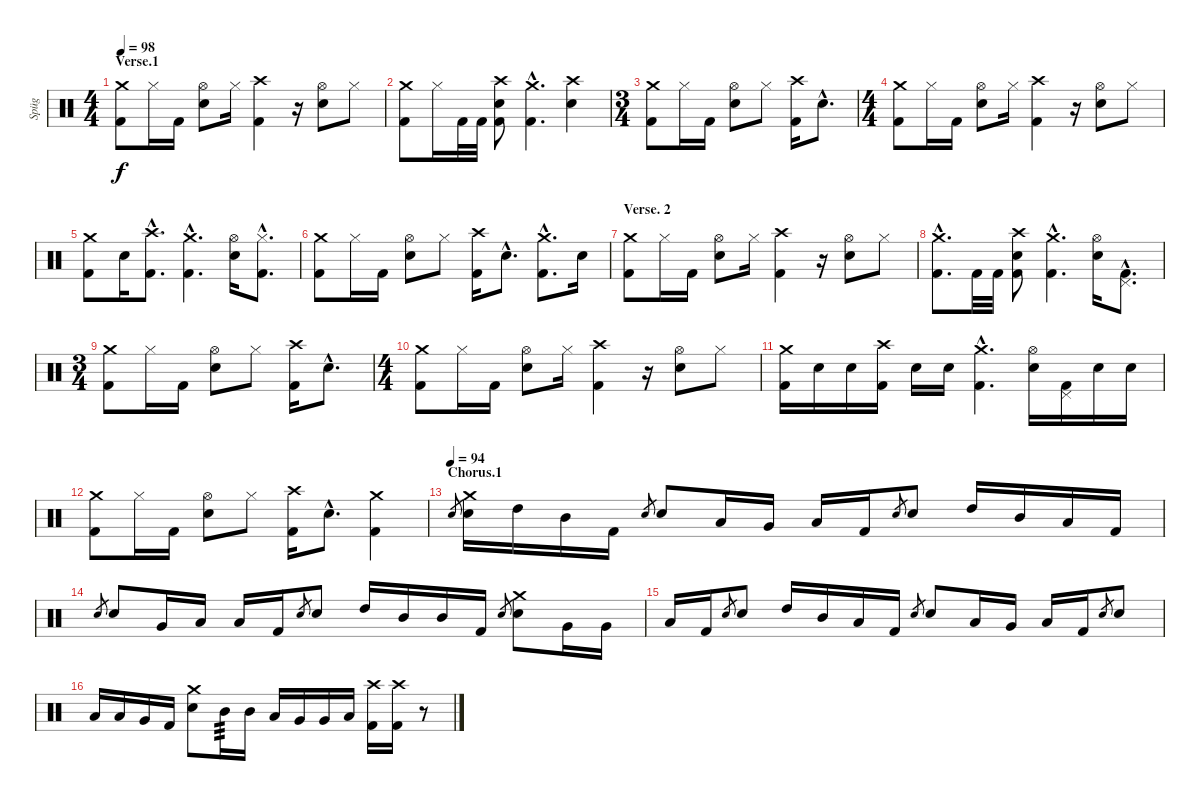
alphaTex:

\track ("Spüg" "Spüg") {instrument percussion}
\staff {score}
\articulation defaults
\ts (4 4)
\section ("" "Verse.1")
\tempo 98
\clef neutral
\ks c
("Crash medium (hit)" "Kick (hit) 2").8{dy f} "Hi-Hat (closed)".16 "Kick (hit) 2".16 ("Hi-Hat (open)" "Electric Snare (hit)").8 "Hi-Hat (closed)".16 ("Crash high (hit)" "Kick (hit) 2").4 r.16 ("Hi-Hat (open)" "Electric Snare (hit)").8 "Hi-Hat (closed)".8 |
("Crash medium (hit)" "Kick (hit) 2").8 "Hi-Hat (closed)".16 "Kick (hit) 2".32 "Kick (hit) 2".32 ("Crash high (hit)" "Electric Snare (hit)" "Kick (hit) 2").8 ("Crash medium (hit)"{hac} "Kick (hit) 2"{hac}).4{d} ("Crash high (hit)" "Electric Snare (hit)").4 |
\ts (3 4)
("Crash medium (hit)" "Kick (hit) 2").8 "Hi-Hat (closed)".16 "Kick (hit) 2".16 ("Hi-Hat (open)" "Electric Snare (hit)").8 "Hi-Hat (closed)".8 ("Crash high (hit)" "Kick (hit) 2").16 "Electric Snare (hit)"{hac}.8{d} |
\ts (4 4)
("Crash medium (hit)" "Kick (hit) 2").8 "Hi-Hat (closed)".16 "Kick (hit) 2".16 ("Hi-Hat (open)" "Electric Snare (hit)").8 "Hi-Hat (closed)".16 ("Crash high (hit)" "Kick (hit) 2").4 r.16 ("Hi-Hat (open)" "Electric Snare (hit)").8 "Hi-Hat (closed)".8 |
("Crash medium (hit)" "Kick (hit) 2").8 "Electric Snare (hit)".16 ("Crash high (hit)"{hac} "Kick (hit) 2"{hac}).8{d} ("Crash medium (hit)"{hac} "Kick (hit) 2"{hac}).4{d} ("Hi-Hat (open)" "Electric Snare (hit)").16 ("Hi-Hat (closed)"{hac} "Kick (hit) 2"{hac}).8{d} |
("Crash medium (hit)" "Kick (hit) 2").8 "Hi-Hat (closed)".16 "Kick (hit) 2".16 ("Hi-Hat (open)" "Electric Snare (hit)").8 "Hi-Hat (closed)".8 ("Crash high (hit)" "Kick (hit) 2").16 "Electric Snare (hit)"{hac}.8{d} ("Crash medium (hit)"{hac} "Kick (hit) 2"{hac}).8{d} "Electric Snare (hit)".16 |
\section ("" "Verse. 2")
("Crash medium (hit)" "Kick (hit) 2").8 "Hi-Hat (closed)".16 "Kick (hit) 2".16 ("Hi-Hat (open)" "Electric Snare (hit)").8 "Hi-Hat (closed)".16 ("Crash high (hit)" "Kick (hit) 2").4 r.16 ("Hi-Hat (open)" "Electric Snare (hit)").8 "Hi-Hat (closed)".8 |
("Crash medium (hit)"{hac} "Kick (hit) 2"{hac}).8{d} "Kick (hit) 2".32 "Kick (hit) 2".32 ("Crash high (hit)" "Electric Snare (hit)" "Kick (hit) 2").8 ("Crash medium (hit)"{hac} "Kick (hit) 2"{hac}).4{d} ("Hi-Hat (open)" "Electric Snare (hit)").16 ("Pedal Hi-Hat (hit)"{hac} "Kick (hit) 2"{hac}).8{d} |
\ts (3 4)
("Crash medium (hit)" "Kick (hit) 2").8 "Hi-Hat (closed)".16 "Kick (hit) 2".16 ("Hi-Hat (open)" "Electric Snare (hit)").8 "Hi-Hat (closed)".8 ("Crash high (hit)" "Kick (hit) 2").16 "Electric Snare (hit)"{hac}.8{d} |
\ts (4 4)
("Crash medium (hit)" "Kick (hit) 2").8 "Hi-Hat (closed)".16 "Kick (hit) 2".16 ("Hi-Hat (open)" "Electric Snare (hit)").8 "Hi-Hat (closed)".16 ("Crash high (hit)" "Kick (hit) 2").4 r.16 ("Hi-Hat (open)" "Electric Snare (hit)").8 "Hi-Hat (closed)".8 |
("Crash medium (hit)" "Kick (hit) 2").16 "Electric Snare (hit)".16 "Electric Snare (hit)".16 ("Crash high (hit)" "Kick (hit) 2").16 "Electric Snare (hit)".16 "Electric Snare (hit)".16 ("Crash medium (hit)"{hac} "Kick (hit) 2"{hac}).4{d} ("Hi-Hat (open)" "Electric Snare (hit)").16 ("Pedal Hi-Hat (hit)" "Kick (hit) 2").16 "Electric Snare (hit)".16 "Electric Snare (hit)".16 |
("Crash medium (hit)" "Kick (hit) 2").8 "Hi-Hat (closed)".16 "Kick (hit) 2".16 ("Hi-Hat (open)" "Electric Snare (hit)").8 "Hi-Hat (closed)".8 ("Crash high (hit)" "Kick (hit) 2").16 "Electric Snare (hit)"{hac}.8{d} ("Crash medium (hit)" "Kick (hit) 2").4 |
\section ("" "Chorus.1")
\tempo (94)
"Electric Snare (hit)".8{gr} ("Crash medium (hit)" "Electric Snare (hit)").16 "High Tom (hit)".16 "Mid Tom (hit)".16 "Kick (hit) 2".16 "Electric Snare (hit)".8{gr} "Electric Snare (hit)".8 "Low Tom (hit)".16 "Very Low Tom (hit)".16 "Low Floor Tom (hit)".16 "Kick (hit) 2".16 "Electric Snare (hit)".8{gr} "Electric Snare (hit)".8 "High Tom (hit)".16 "Mid Tom (hit)".16 "Low Tom (hit)".16 "Kick (hit) 2".16 |
"Electric Snare (hit)".8{gr} "Electric Snare (hit)".8 "Very Low Tom (hit)".16 "Low Floor Tom (hit)".16 "Low Floor Tom (hit)".16 "Kick (hit) 2".16 "Electric Snare (hit)".8{gr} "Electric Snare (hit)".8 "High Tom (hit)".16 "Mid Tom (hit)".16 "Mid Tom (hit)".16 "Kick (hit) 2".16 "Electric Snare (hit)".8{gr} ("Crash medium (hit)" "Electric Snare (hit)").8 "Very Low Tom (hit)".16 "Very Low Tom (hit)".16 |
"Low Floor Tom (hit)".16 "Kick (hit) 2".16 "Electric Snare (hit)".8{gr} "Electric Snare (hit)".8 "High Tom (hit)".16 "Mid Tom (hit)".16 "Low Tom (hit)".16 "Kick (hit) 2".16 "Electric Snare (hit)".8{gr} "Electric Snare (hit)".8 "Low Tom (hit)".16 "Very Low Tom (hit)".16 "Low Floor Tom (hit)".16 "Kick (hit) 2".16 "Electric Snare (hit)".8{gr} "Electric Snare (hit)".8 |
"Low Tom (hit)".16 "Low Tom (hit)".16 "Very Low Tom (hit)".16 "Kick (hit) 2".16 ("Crash medium (hit)" "Electric Snare (hit)").8 "Mid Tom (hit)".16{tp 3} "Mid Tom (hit)".16 "Low Tom (hit)".16 "Very Low Tom (hit)".16 "Very Low Tom (hit)".16 "Low Floor Tom (hit)".16 ("Crash high (hit)" "Kick (hit) 2").16 ("Crash high (hit)" "Kick (hit) 2").16 r.8
